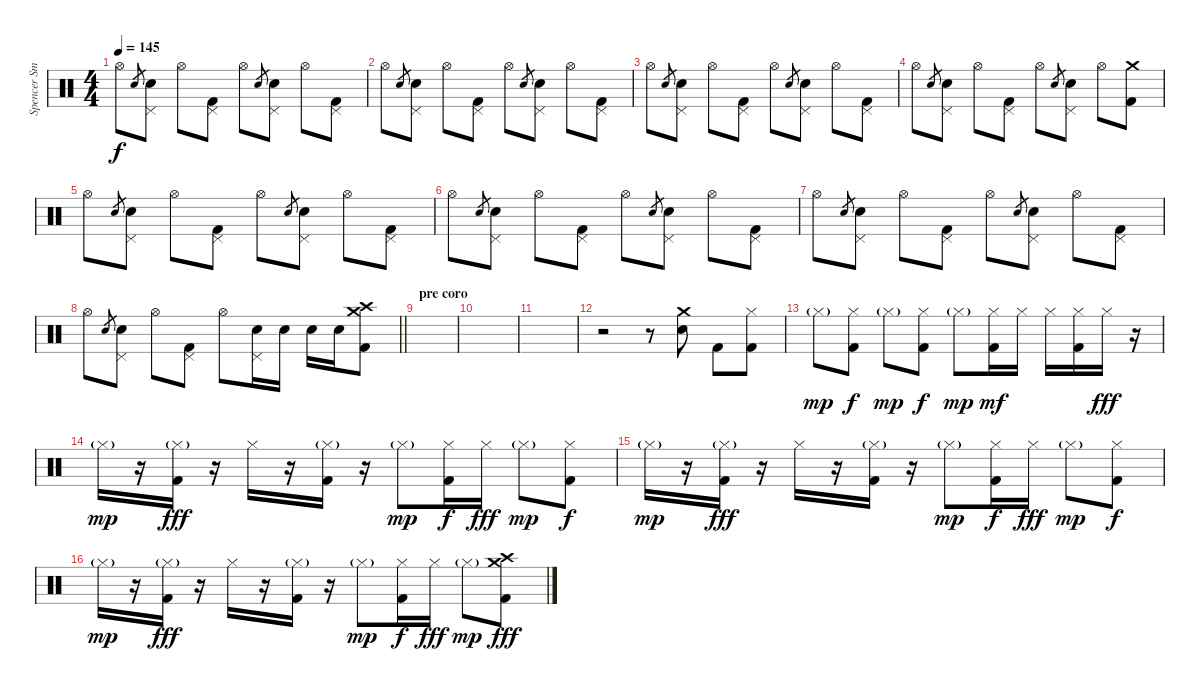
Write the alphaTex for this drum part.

\track ("Spencer Smith" "Spencer Sm") {instrument percussion}
\staff {score}
\articulation defaults
\ts (4 4)
\tempo 145
\clef neutral
\ks c "Hi-Hat (open)".8{dy f} "Electric Snare (hit)".8{gr}
("Pedal Hi-Hat (hit)" "Electric Snare (hit)").8 "Hi-Hat (open)".8 ("Pedal Hi-Hat (hit)" "Kick (hit) 2").8 "Hi-Hat (open)".8 "Electric Snare (hit)".8{gr} ("Pedal Hi-Hat (hit)" "Electric Snare (hit)").8 "Hi-Hat (open)".8 ("Pedal Hi-Hat (hit)" "Kick (hit) 2").8 |
"Hi-Hat (open)".8 "Electric Snare (hit)".8{gr} ("Pedal Hi-Hat (hit)" "Electric Snare (hit)").8 "Hi-Hat (open)".8 ("Pedal Hi-Hat (hit)" "Kick (hit) 2").8 "Hi-Hat (open)".8 "Electric Snare (hit)".8{gr} ("Pedal Hi-Hat (hit)" "Electric Snare (hit)").8 "Hi-Hat (open)".8 ("Pedal Hi-Hat (hit)" "Kick (hit) 2").8 |
"Hi-Hat (open)".8 "Electric Snare (hit)".8{gr} ("Pedal Hi-Hat (hit)" "Electric Snare (hit)").8 "Hi-Hat (open)".8 ("Pedal Hi-Hat (hit)" "Kick (hit) 2").8 "Hi-Hat (open)".8 "Electric Snare (hit)".8{gr} ("Pedal Hi-Hat (hit)" "Electric Snare (hit)").8 "Hi-Hat (open)".8 ("Pedal Hi-Hat (hit)" "Kick (hit) 2").8 |
"Hi-Hat (open)".8 "Electric Snare (hit)".8{gr} ("Pedal Hi-Hat (hit)" "Electric Snare (hit)").8 "Hi-Hat (open)".8 ("Pedal Hi-Hat (hit)" "Kick (hit) 2").8 "Hi-Hat (open)".8 "Electric Snare (hit)".8{gr} ("Pedal Hi-Hat (hit)" "Electric Snare (hit)").8 "Hi-Hat (open)".8 ("Crash medium (hit)" "Kick (hit) 2").8 |
"Hi-Hat (open)".8 "Electric Snare (hit)".8{gr} ("Pedal Hi-Hat (hit)" "Electric Snare (hit)").8 "Hi-Hat (open)".8 ("Pedal Hi-Hat (hit)" "Kick (hit) 2").8 "Hi-Hat (open)".8 "Electric Snare (hit)".8{gr} ("Pedal Hi-Hat (hit)" "Electric Snare (hit)").8 "Hi-Hat (open)".8 ("Pedal Hi-Hat (hit)" "Kick (hit) 2").8 |
"Hi-Hat (open)".8 "Electric Snare (hit)".8{gr} ("Pedal Hi-Hat (hit)" "Electric Snare (hit)").8 "Hi-Hat (open)".8 ("Pedal Hi-Hat (hit)" "Kick (hit) 2").8 "Hi-Hat (open)".8 "Electric Snare (hit)".8{gr} ("Pedal Hi-Hat (hit)" "Electric Snare (hit)").8 "Hi-Hat (open)".8 ("Pedal Hi-Hat (hit)" "Kick (hit) 2").8 |
"Hi-Hat (open)".8 "Electric Snare (hit)".8{gr} ("Pedal Hi-Hat (hit)" "Electric Snare (hit)").8 "Hi-Hat (open)".8 ("Pedal Hi-Hat (hit)" "Kick (hit) 2").8 "Hi-Hat (open)".8 "Electric Snare (hit)".8{gr} ("Pedal Hi-Hat (hit)" "Electric Snare (hit)").8 "Hi-Hat (open)".8 ("Pedal Hi-Hat (hit)" "Kick (hit) 2").8 |
\barLineRight lightlight "Hi-Hat (open)".8 "Electric Snare (hit)".8{gr}
("Pedal Hi-Hat (hit)" "Electric Snare (hit)").8 "Hi-Hat (open)".8 ("Pedal Hi-Hat (hit)" "Kick (hit) 2").8 "Hi-Hat (open)".8 ("Pedal Hi-Hat (hit)" "Electric Snare (hit)").16 "Electric Snare (hit)".16 "Electric Snare (hit)".16 "Electric Snare (hit)".16 ("Crash medium (hit)" "Crash high (hit)" "Kick (hit) 2").8 |
\section ("" "pre coro")
|
|
|
r.2 r.8 ("Crash medium (hit)" "Electric Snare (hit)").8 "Kick (hit) 2".8 ("Hi-Hat (closed)" "Kick (hit) 2").8 |
"Hi-Hat (closed)"{g}.8{dy mp} ("Hi-Hat (closed)" "Kick (hit) 2").8{dy f} "Hi-Hat (closed)"{g}.8{dy mp} ("Hi-Hat (closed)" "Kick (hit) 2").8{dy f} "Hi-Hat (closed)"{g}.8{dy mp} ("Hi-Hat (closed)" "Kick (hit) 2").16{dy mf} "Hi-Hat (closed)".16 "Hi-Hat (closed)".16 ("Hi-Hat (closed)" "Kick (hit) 2").16 "Hi-Hat (closed)".16{dy fff} r.16 |
"Hi-Hat (closed)"{g}.16{dy mp} r.16 ("Hi-Hat (closed)"{g} "Kick (hit) 2").16{dy fff} r.16 "Hi-Hat (closed)".16 r.16 ("Hi-Hat (closed)"{g} "Kick (hit) 2").16 r.16 "Hi-Hat (closed)"{g}.8{dy mp} ("Hi-Hat (closed)" "Kick (hit) 2").16{dy f} "Hi-Hat (closed)".16{dy fff} "Hi-Hat (closed)"{g}.8{dy mp} ("Hi-Hat (closed)" "Kick (hit) 2").8{dy f} |
"Hi-Hat (closed)"{g}.16{dy mp} r.16 ("Hi-Hat (closed)"{g} "Kick (hit) 2").16{dy fff} r.16 "Hi-Hat (closed)".16 r.16 ("Hi-Hat (closed)"{g} "Kick (hit) 2").16 r.16 "Hi-Hat (closed)"{g}.8{dy mp} ("Hi-Hat (closed)" "Kick (hit) 2").16{dy f} "Hi-Hat (closed)".16{dy fff} "Hi-Hat (closed)"{g}.8{dy mp} ("Hi-Hat (closed)" "Kick (hit) 2").8{dy f} |
"Hi-Hat (closed)"{g}.16{dy mp} r.16 ("Hi-Hat (closed)"{g} "Kick (hit) 2").16{dy fff} r.16 "Hi-Hat (closed)".16 r.16 ("Hi-Hat (closed)"{g} "Kick (hit) 2").16 r.16 "Hi-Hat (closed)"{g}.8{dy mp} ("Hi-Hat (closed)" "Kick (hit) 2").16{dy f} "Hi-Hat (closed)".16{dy fff} "Hi-Hat (closed)"{g}.8{dy mp} ("Crash medium (hit)" "Crash high (hit)" "Kick (hit) 2").8{dy fff}
